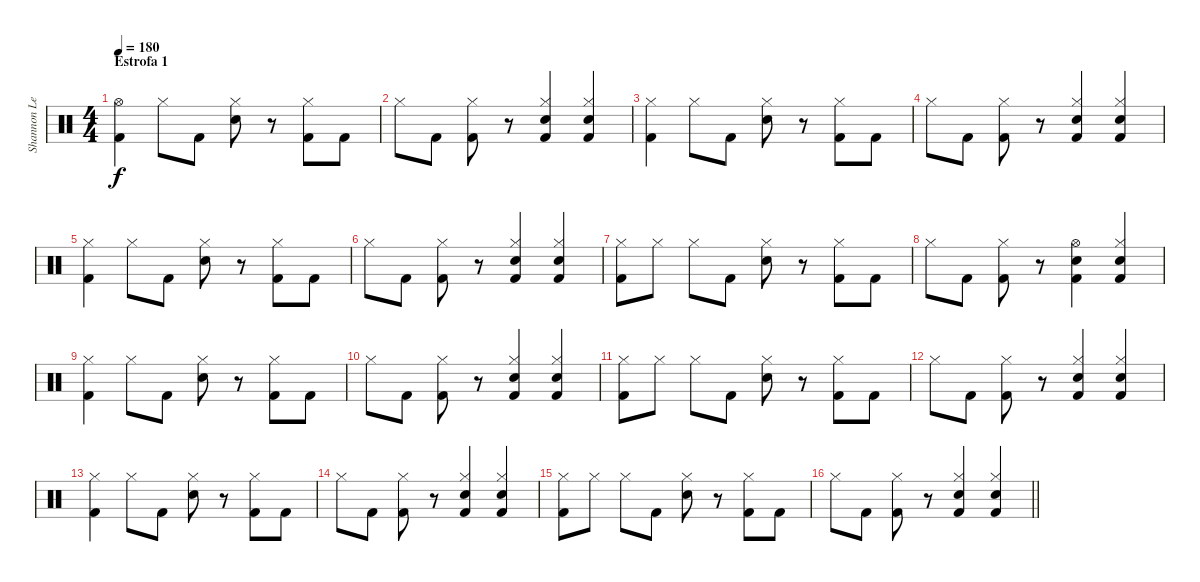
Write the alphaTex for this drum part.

\track ("Shannon Leto" "Shannon Le") {instrument percussion}
\staff {score}
\articulation defaults
\ts (4 4)
\section ("" "Estrofa 1")
\tempo 180
\clef neutral
\ks c
("Hi-Hat (open)" "Kick (hit) 2").4{dy f} "Hi-Hat (closed)".8 "Kick (hit) 2".8 ("Hi-Hat (closed)" "Snare (hit) 2").8 r.8 ("Hi-Hat (closed)" "Kick (hit) 2").8 "Kick (hit) 2".8 |
"Hi-Hat (closed)".8 "Kick (hit) 2".8 ("Hi-Hat (closed)" "Kick (hit) 2").8 r.8 ("Hi-Hat (closed)" "Snare (hit) 2" "Kick (hit) 2").4 ("Hi-Hat (closed)" "Snare (hit) 2" "Kick (hit) 2").4 |
("Hi-Hat (closed)" "Kick (hit) 2").4 "Hi-Hat (closed)".8 "Kick (hit) 2".8 ("Hi-Hat (closed)" "Snare (hit) 2").8 r.8 ("Hi-Hat (closed)" "Kick (hit) 2").8 "Kick (hit) 2".8 |
"Hi-Hat (closed)".8 "Kick (hit) 2".8 ("Hi-Hat (closed)" "Kick (hit) 2").8 r.8 ("Hi-Hat (closed)" "Snare (hit) 2" "Kick (hit) 2").4 ("Hi-Hat (closed)" "Snare (hit) 2" "Kick (hit) 2").4 |
("Hi-Hat (closed)" "Kick (hit) 2").4 "Hi-Hat (closed)".8 "Kick (hit) 2".8 ("Hi-Hat (closed)" "Snare (hit) 2").8 r.8 ("Hi-Hat (closed)" "Kick (hit) 2").8 "Kick (hit) 2".8 |
"Hi-Hat (closed)".8 "Kick (hit) 2".8 ("Hi-Hat (closed)" "Kick (hit) 2").8 r.8 ("Hi-Hat (closed)" "Snare (hit) 2" "Kick (hit) 2").4 ("Hi-Hat (closed)" "Snare (hit) 2" "Kick (hit) 2").4 |
("Hi-Hat (closed)" "Kick (hit) 2").8 "Hi-Hat (closed)".8 "Hi-Hat (closed)".8 "Kick (hit) 2".8 ("Hi-Hat (closed)" "Snare (hit) 2").8 r.8 ("Hi-Hat (closed)" "Kick (hit) 2").8 "Kick (hit) 2".8 |
"Hi-Hat (closed)".8 "Kick (hit) 2".8 ("Hi-Hat (closed)" "Kick (hit) 2").8 r.8 ("Hi-Hat (open)" "Snare (hit) 2" "Kick (hit) 2").4 ("Hi-Hat (closed)" "Snare (hit) 2" "Kick (hit) 2").4 |
("Hi-Hat (closed)" "Kick (hit) 2").4 "Hi-Hat (closed)".8 "Kick (hit) 2".8 ("Hi-Hat (closed)" "Snare (hit) 2").8 r.8 ("Hi-Hat (closed)" "Kick (hit) 2").8 "Kick (hit) 2".8 |
"Hi-Hat (closed)".8 "Kick (hit) 2".8 ("Hi-Hat (closed)" "Kick (hit) 2").8 r.8 ("Hi-Hat (closed)" "Snare (hit) 2" "Kick (hit) 2").4 ("Hi-Hat (closed)" "Snare (hit) 2" "Kick (hit) 2").4 |
("Hi-Hat (closed)" "Kick (hit) 2").8 "Hi-Hat (closed)".8 "Hi-Hat (closed)".8 "Kick (hit) 2".8 ("Hi-Hat (closed)" "Snare (hit) 2").8 r.8 ("Hi-Hat (closed)" "Kick (hit) 2").8 "Kick (hit) 2".8 |
"Hi-Hat (closed)".8 "Kick (hit) 2".8 ("Hi-Hat (closed)" "Kick (hit) 2").8 r.8 ("Hi-Hat (closed)" "Snare (hit) 2" "Kick (hit) 2").4 ("Hi-Hat (closed)" "Snare (hit) 2" "Kick (hit) 2").4 |
("Hi-Hat (closed)" "Kick (hit) 2").4 "Hi-Hat (closed)".8 "Kick (hit) 2".8 ("Hi-Hat (closed)" "Snare (hit) 2").8 r.8 ("Hi-Hat (closed)" "Kick (hit) 2").8 "Kick (hit) 2".8 |
"Hi-Hat (closed)".8 "Kick (hit) 2".8 ("Hi-Hat (closed)" "Kick (hit) 2").8 r.8 ("Hi-Hat (closed)" "Snare (hit) 2" "Kick (hit) 2").4 ("Hi-Hat (closed)" "Snare (hit) 2" "Kick (hit) 2").4 |
("Hi-Hat (closed)" "Kick (hit) 2").8 "Hi-Hat (closed)".8 "Hi-Hat (closed)".8 "Kick (hit) 2".8 ("Hi-Hat (closed)" "Snare (hit) 2").8 r.8 ("Hi-Hat (closed)" "Kick (hit) 2").8 "Kick (hit) 2".8 |
\barLineRight lightlight "Hi-Hat (closed)".8 "Kick (hit) 2".8
("Hi-Hat (closed)" "Kick (hit) 2").8 r.8 ("Hi-Hat (closed)" "Snare (hit) 2" "Kick (hit) 2").4 ("Hi-Hat (closed)" "Snare (hit) 2" "Kick (hit) 2").4
